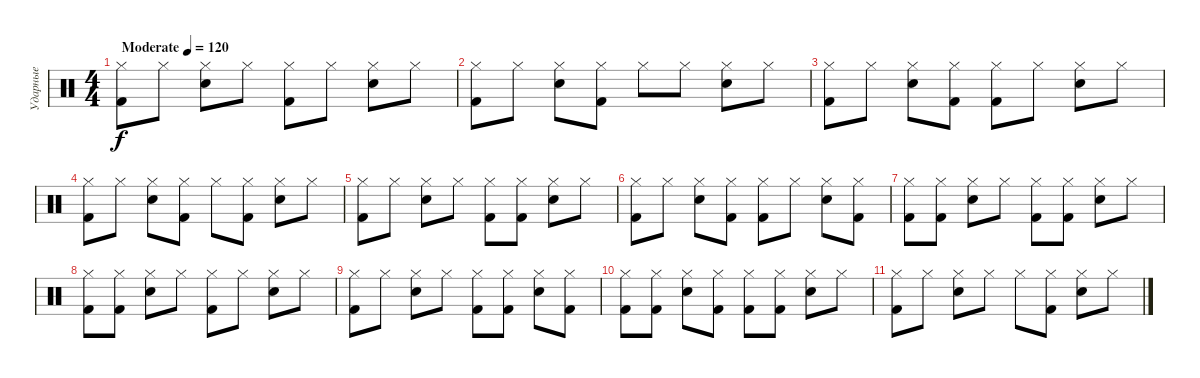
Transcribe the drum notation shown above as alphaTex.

\track ("Ударные" "Ударные") {instrument percussion}
\staff {score}
\articulation defaults
\ts (4 4)
\tempo (120 "Moderate")
\clef neutral
\ks c
("Hi-Hat (closed)" "Kick (hit) 2").8{dy f} "Hi-Hat (closed)".8 ("Hi-Hat (closed)" "Electric Snare (hit)").8 "Hi-Hat (closed)".8 ("Hi-Hat (closed)" "Kick (hit) 2").8 "Hi-Hat (closed)".8 ("Hi-Hat (closed)" "Electric Snare (hit)").8 "Hi-Hat (closed)".8 |
("Hi-Hat (closed)" "Kick (hit) 2").8 "Hi-Hat (closed)".8 ("Hi-Hat (closed)" "Electric Snare (hit)").8 ("Hi-Hat (closed)" "Kick (hit) 2").8 "Hi-Hat (closed)".8 "Hi-Hat (closed)".8 ("Hi-Hat (closed)" "Electric Snare (hit)").8 "Hi-Hat (closed)".8 |
("Hi-Hat (closed)" "Kick (hit) 2").8 "Hi-Hat (closed)".8 ("Hi-Hat (closed)" "Electric Snare (hit)").8 ("Hi-Hat (closed)" "Kick (hit) 2").8 ("Hi-Hat (closed)" "Kick (hit) 2").8 "Hi-Hat (closed)".8 ("Hi-Hat (closed)" "Electric Snare (hit)").8 "Hi-Hat (closed)".8 |
("Hi-Hat (closed)" "Kick (hit) 2").8 "Hi-Hat (closed)".8 ("Hi-Hat (closed)" "Electric Snare (hit)").8 ("Hi-Hat (closed)" "Kick (hit) 2").8 "Hi-Hat (closed)".8 ("Hi-Hat (closed)" "Kick (hit) 2").8 ("Hi-Hat (closed)" "Electric Snare (hit)").8 "Hi-Hat (closed)".8 |
("Hi-Hat (closed)" "Kick (hit) 2").8 "Hi-Hat (closed)".8 ("Hi-Hat (closed)" "Electric Snare (hit)").8 "Hi-Hat (closed)".8 ("Hi-Hat (closed)" "Kick (hit) 2").8 ("Hi-Hat (closed)" "Kick (hit) 2").8 ("Hi-Hat (closed)" "Electric Snare (hit)").8 "Hi-Hat (closed)".8 |
("Hi-Hat (closed)" "Kick (hit) 2").8 "Hi-Hat (closed)".8 ("Hi-Hat (closed)" "Electric Snare (hit)").8 ("Hi-Hat (closed)" "Kick (hit) 2").8 ("Hi-Hat (closed)" "Kick (hit) 2").8 "Hi-Hat (closed)".8 ("Hi-Hat (closed)" "Electric Snare (hit)").8 ("Hi-Hat (closed)" "Kick (hit) 2").8 |
("Hi-Hat (closed)" "Kick (hit) 2").8 ("Hi-Hat (closed)" "Kick (hit) 2").8 ("Hi-Hat (closed)" "Electric Snare (hit)").8 "Hi-Hat (closed)".8 ("Hi-Hat (closed)" "Kick (hit) 2").8 ("Hi-Hat (closed)" "Kick (hit) 2").8 ("Hi-Hat (closed)" "Electric Snare (hit)").8 "Hi-Hat (closed)".8 |
("Hi-Hat (closed)" "Kick (hit) 2").8 ("Hi-Hat (closed)" "Kick (hit) 2").8 ("Hi-Hat (closed)" "Electric Snare (hit)").8 "Hi-Hat (closed)".8 ("Hi-Hat (closed)" "Kick (hit) 2").8 "Hi-Hat (closed)".8 ("Hi-Hat (closed)" "Electric Snare (hit)").8 "Hi-Hat (closed)".8 |
("Hi-Hat (closed)" "Kick (hit) 2").8 "Hi-Hat (closed)".8 ("Hi-Hat (closed)" "Electric Snare (hit)").8 "Hi-Hat (closed)".8 ("Hi-Hat (closed)" "Kick (hit) 2").8 ("Hi-Hat (closed)" "Kick (hit) 2").8 ("Hi-Hat (closed)" "Electric Snare (hit)").8 ("Hi-Hat (closed)" "Kick (hit) 2").8 |
("Hi-Hat (closed)" "Kick (hit) 2").8 ("Hi-Hat (closed)" "Kick (hit) 2").8 ("Hi-Hat (closed)" "Electric Snare (hit)").8 ("Hi-Hat (closed)" "Kick (hit) 2").8 ("Hi-Hat (closed)" "Kick (hit) 2").8 ("Hi-Hat (closed)" "Kick (hit) 2").8 ("Hi-Hat (closed)" "Electric Snare (hit)").8 "Hi-Hat (closed)".8 |
("Hi-Hat (closed)" "Kick (hit) 2").8 "Hi-Hat (closed)".8 ("Hi-Hat (closed)" "Electric Snare (hit)").8 "Hi-Hat (closed)".8 "Hi-Hat (closed)".8 ("Hi-Hat (closed)" "Kick (hit) 2").8 ("Hi-Hat (closed)" "Electric Snare (hit)").8 "Hi-Hat (closed)".8
